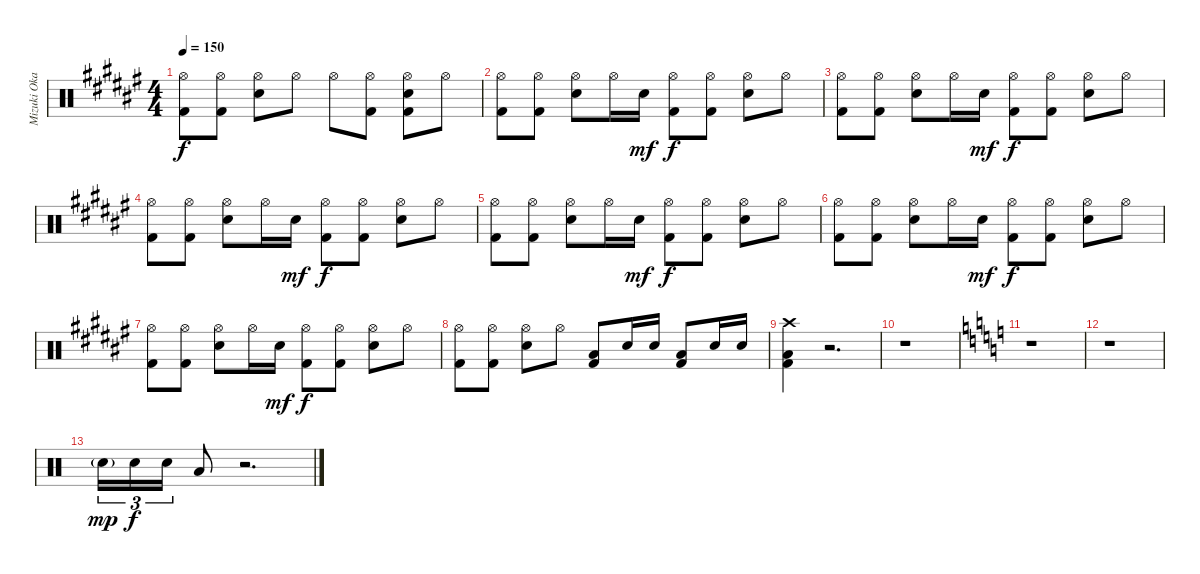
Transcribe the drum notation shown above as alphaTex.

\track ("Mizuki Okajima (Drums)" "Mizuki Oka") {instrument percussion}
\staff {score}
\articulation defaults
\ts (4 4)
\tempo 150
\clef neutral
\ks d#minor
("Hi-Hat (open)" "Kick (hit) 2").8{dy f} ("Hi-Hat (open)" "Kick (hit) 2").8 ("Hi-Hat (open)" "Snare (hit) 2").8 "Hi-Hat (open)".8 "Hi-Hat (open)".8 ("Hi-Hat (open)" "Kick (hit) 2").8 ("Hi-Hat (open)" "Snare (hit) 2" "Kick (hit) 2").8 "Hi-Hat (open)".8 |
("Hi-Hat (open)" "Kick (hit) 2").8 ("Hi-Hat (open)" "Kick (hit) 2").8 ("Hi-Hat (open)" "Snare (hit) 2").8 "Hi-Hat (open)".16 "Snare (hit) 2".16{dy mf} ("Hi-Hat (open)" "Kick (hit) 2").8{dy f} ("Hi-Hat (open)" "Kick (hit) 2").8 ("Hi-Hat (open)" "Snare (hit) 2").8 "Hi-Hat (open)".8 |
("Hi-Hat (open)" "Kick (hit) 2").8 ("Hi-Hat (open)" "Kick (hit) 2").8 ("Hi-Hat (open)" "Snare (hit) 2").8 "Hi-Hat (open)".16 "Snare (hit) 2".16{dy mf} ("Hi-Hat (open)" "Kick (hit) 2").8{dy f} ("Hi-Hat (open)" "Kick (hit) 2").8 ("Hi-Hat (open)" "Snare (hit) 2").8 "Hi-Hat (open)".8 |
("Hi-Hat (open)" "Kick (hit) 2").8 ("Hi-Hat (open)" "Kick (hit) 2").8 ("Hi-Hat (open)" "Snare (hit) 2").8 "Hi-Hat (open)".16 "Snare (hit) 2".16{dy mf} ("Hi-Hat (open)" "Kick (hit) 2").8{dy f} ("Hi-Hat (open)" "Kick (hit) 2").8 ("Hi-Hat (open)" "Snare (hit) 2").8 "Hi-Hat (open)".8 |
("Hi-Hat (open)" "Kick (hit) 2").8 ("Hi-Hat (open)" "Kick (hit) 2").8 ("Hi-Hat (open)" "Snare (hit) 2").8 "Hi-Hat (open)".16 "Snare (hit) 2".16{dy mf} ("Hi-Hat (open)" "Kick (hit) 2").8{dy f} ("Hi-Hat (open)" "Kick (hit) 2").8 ("Hi-Hat (open)" "Snare (hit) 2").8 "Hi-Hat (open)".8 |
("Hi-Hat (open)" "Kick (hit) 2").8 ("Hi-Hat (open)" "Kick (hit) 2").8 ("Hi-Hat (open)" "Snare (hit) 2").8 "Hi-Hat (open)".16 "Snare (hit) 2".16{dy mf} ("Hi-Hat (open)" "Kick (hit) 2").8{dy f} ("Hi-Hat (open)" "Kick (hit) 2").8 ("Hi-Hat (open)" "Snare (hit) 2").8 "Hi-Hat (open)".8 |
("Hi-Hat (open)" "Kick (hit) 2").8 ("Hi-Hat (open)" "Kick (hit) 2").8 ("Hi-Hat (open)" "Snare (hit) 2").8 "Hi-Hat (open)".16 "Snare (hit) 2".16{dy mf} ("Hi-Hat (open)" "Kick (hit) 2").8{dy f} ("Hi-Hat (open)" "Kick (hit) 2").8 ("Hi-Hat (open)" "Snare (hit) 2").8 "Hi-Hat (open)".8 |
("Hi-Hat (open)" "Kick (hit) 2").8 ("Hi-Hat (open)" "Kick (hit) 2").8 ("Hi-Hat (open)" "Snare (hit) 2").8 "Hi-Hat (open)".8 ("Low Tom (hit)" "Kick (hit) 2").8 "Snare (hit) 2".16 "Snare (hit) 2".16 ("Low Tom (hit)" "Kick (hit) 2").8 "Snare (hit) 2".16 "Snare (hit) 2".16 |
("Crash high (hit)" "Low Tom (hit)" "Kick (hit) 2").4 r.2{d} |
r.1 |
\ks c
r.1 |
r.1 |
"Snare (hit) 2"{g}.16{tu (3 2) dy mp} "Snare (hit) 2".16{tu (3 2) dy f} "Snare (hit) 2".16{tu (3 2)} "Low Tom (hit)".8 r.2{d}
